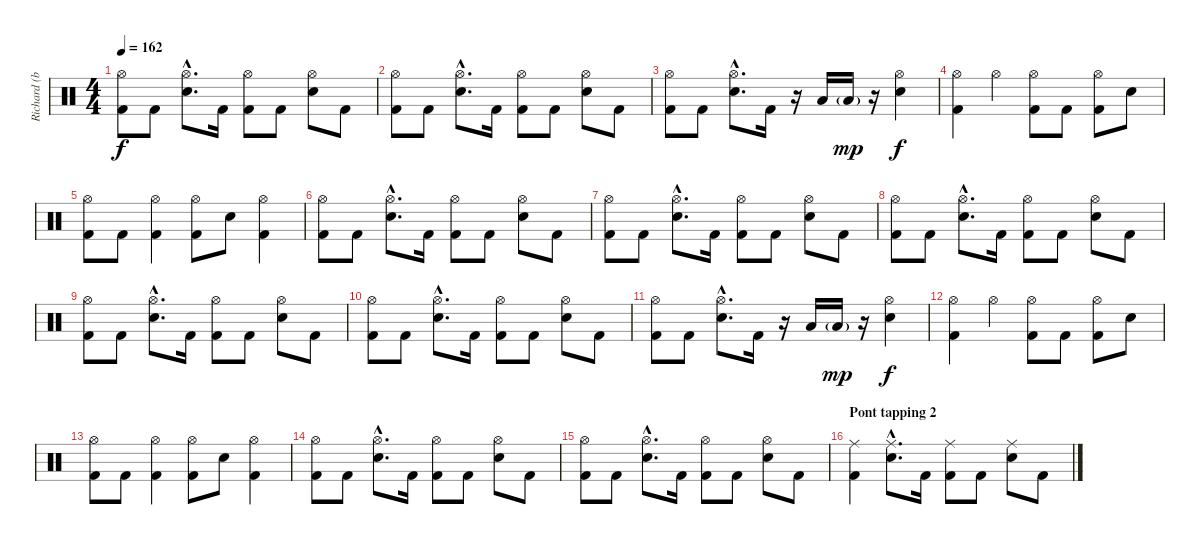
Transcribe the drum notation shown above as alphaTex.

\track ("Richard (batterie)" "Richard (b") {instrument percussion}
\staff {score}
\articulation defaults
\ts (4 4)
\tempo 162
\clef neutral
\ks c
("Hi-Hat (open)" "Kick (hit) 2").8{dy f} "Kick (hit) 2".8 ("Hi-Hat (open)"{hac} "Snare (hit) 2"{hac}).8{d} "Kick (hit) 2".16 ("Hi-Hat (open)" "Kick (hit) 2").8 "Kick (hit) 2".8 ("Hi-Hat (open)" "Snare (hit) 2").8 "Kick (hit) 2".8 |
("Hi-Hat (open)" "Kick (hit) 2").8 "Kick (hit) 2".8 ("Hi-Hat (open)"{hac} "Snare (hit) 2"{hac}).8{d} "Kick (hit) 2".16 ("Hi-Hat (open)" "Kick (hit) 2").8 "Kick (hit) 2".8 ("Hi-Hat (open)" "Snare (hit) 2").8 "Kick (hit) 2".8 |
("Hi-Hat (open)" "Kick (hit) 2").8 "Kick (hit) 2".8 ("Hi-Hat (open)"{hac} "Snare (hit) 2"{hac}).8{d} "Kick (hit) 2".16 r.16 "Low Tom (hit)".16 "Low Tom (hit)"{g}.16{dy mp} r.16 ("Hi-Hat (open)" "Snare (hit) 2").4{dy f} |
("Hi-Hat (open)" "Kick (hit) 2").4 "Hi-Hat (open)".4 ("Hi-Hat (open)" "Kick (hit) 2").8 "Kick (hit) 2".8 ("Hi-Hat (open)" "Kick (hit) 2").8 "Snare (hit) 2".8 |
("Hi-Hat (open)" "Kick (hit) 2").8 "Kick (hit) 2".8 ("Hi-Hat (open)" "Kick (hit) 2").4 ("Hi-Hat (open)" "Kick (hit) 2").8 "Snare (hit) 2".8 ("Hi-Hat (open)" "Kick (hit) 2").4 |
("Hi-Hat (open)" "Kick (hit) 2").8 "Kick (hit) 2".8 ("Hi-Hat (open)"{hac} "Snare (hit) 2"{hac}).8{d} "Kick (hit) 2".16 ("Hi-Hat (open)" "Kick (hit) 2").8 "Kick (hit) 2".8 ("Hi-Hat (open)" "Snare (hit) 2").8 "Kick (hit) 2".8 |
("Hi-Hat (open)" "Kick (hit) 2").8 "Kick (hit) 2".8 ("Hi-Hat (open)"{hac} "Snare (hit) 2"{hac}).8{d} "Kick (hit) 2".16 ("Hi-Hat (open)" "Kick (hit) 2").8 "Kick (hit) 2".8 ("Hi-Hat (open)" "Snare (hit) 2").8 "Kick (hit) 2".8 |
("Hi-Hat (open)" "Kick (hit) 2").8 "Kick (hit) 2".8 ("Hi-Hat (open)"{hac} "Snare (hit) 2"{hac}).8{d} "Kick (hit) 2".16 ("Hi-Hat (open)" "Kick (hit) 2").8 "Kick (hit) 2".8 ("Hi-Hat (open)" "Snare (hit) 2").8 "Kick (hit) 2".8 |
("Hi-Hat (open)" "Kick (hit) 2").8 "Kick (hit) 2".8 ("Hi-Hat (open)"{hac} "Snare (hit) 2"{hac}).8{d} "Kick (hit) 2".16 ("Hi-Hat (open)" "Kick (hit) 2").8 "Kick (hit) 2".8 ("Hi-Hat (open)" "Snare (hit) 2").8 "Kick (hit) 2".8 |
("Hi-Hat (open)" "Kick (hit) 2").8 "Kick (hit) 2".8 ("Hi-Hat (open)"{hac} "Snare (hit) 2"{hac}).8{d} "Kick (hit) 2".16 ("Hi-Hat (open)" "Kick (hit) 2").8 "Kick (hit) 2".8 ("Hi-Hat (open)" "Snare (hit) 2").8 "Kick (hit) 2".8 |
("Hi-Hat (open)" "Kick (hit) 2").8 "Kick (hit) 2".8 ("Hi-Hat (open)"{hac} "Snare (hit) 2"{hac}).8{d} "Kick (hit) 2".16 r.16 "Low Tom (hit)".16 "Low Tom (hit)"{g}.16{dy mp} r.16 ("Hi-Hat (open)" "Snare (hit) 2").4{dy f} |
("Hi-Hat (open)" "Kick (hit) 2").4 "Hi-Hat (open)".4 ("Hi-Hat (open)" "Kick (hit) 2").8 "Kick (hit) 2".8 ("Hi-Hat (open)" "Kick (hit) 2").8 "Snare (hit) 2".8 |
("Hi-Hat (open)" "Kick (hit) 2").8 "Kick (hit) 2".8 ("Hi-Hat (open)" "Kick (hit) 2").4 ("Hi-Hat (open)" "Kick (hit) 2").8 "Snare (hit) 2".8 ("Hi-Hat (open)" "Kick (hit) 2").4 |
("Hi-Hat (open)" "Kick (hit) 2").8 "Kick (hit) 2".8 ("Hi-Hat (open)"{hac} "Snare (hit) 2"{hac}).8{d} "Kick (hit) 2".16 ("Hi-Hat (open)" "Kick (hit) 2").8 "Kick (hit) 2".8 ("Hi-Hat (open)" "Snare (hit) 2").8 "Kick (hit) 2".8 |
("Hi-Hat (open)" "Kick (hit) 2").8 "Kick (hit) 2".8 ("Hi-Hat (open)"{hac} "Snare (hit) 2"{hac}).8{d} "Kick (hit) 2".16 ("Hi-Hat (open)" "Kick (hit) 2").8 "Kick (hit) 2".8 ("Hi-Hat (open)" "Snare (hit) 2").8 "Kick (hit) 2".8 |
\section ("" "Pont tapping 2")
("Ride (middle)" "Kick (hit) 2").4 ("Ride (middle)"{hac} "Snare (hit) 2"{hac}).8{d} "Kick (hit) 2".16 ("Ride (middle)" "Kick (hit) 2").8 "Kick (hit) 2".8 ("Ride (middle)" "Snare (hit) 2").8 "Kick (hit) 2".8
